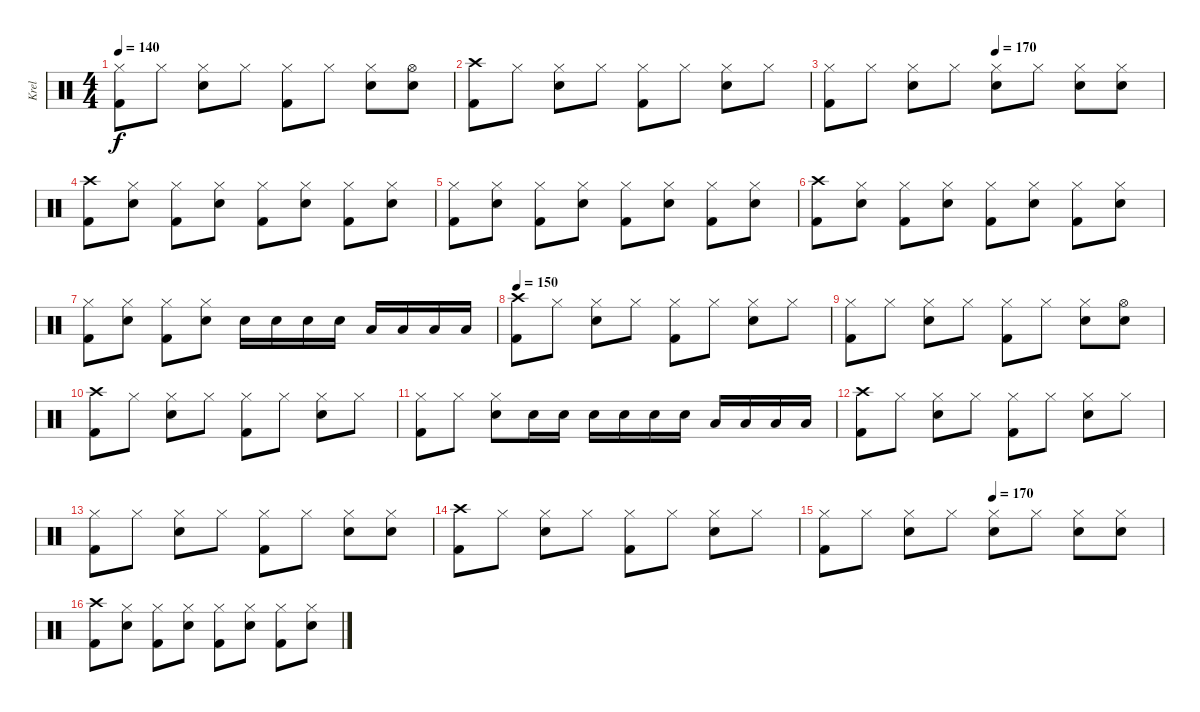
\track ("Krel" "Krel") {instrument percussion}
\staff {score}
\articulation defaults
\ts (4 4)
\tempo 140
\clef neutral
\ks c
("Hi-Hat (closed)" "Kick (hit) 2").8{dy f} "Hi-Hat (closed)".8 ("Hi-Hat (closed)" "Snare (hit) 2").8 "Hi-Hat (closed)".8 ("Hi-Hat (closed)" "Kick (hit) 2").8 "Hi-Hat (closed)".8 ("Hi-Hat (closed)" "Snare (hit) 2").8 ("Hi-Hat (open)" "Snare (hit) 2").8 |
("Crash high (hit)" "Kick (hit) 2").8 "Hi-Hat (closed)".8 ("Hi-Hat (closed)" "Snare (hit) 2").8 "Hi-Hat (closed)".8 ("Hi-Hat (closed)" "Kick (hit) 2").8 "Hi-Hat (closed)".8 ("Hi-Hat (closed)" "Snare (hit) 2").8 "Hi-Hat (closed)".8 |
\tempo (170 0.5)
("Hi-Hat (closed)" "Kick (hit) 2").8 "Hi-Hat (closed)".8 ("Hi-Hat (closed)" "Snare (hit) 2").8 "Hi-Hat (closed)".8 ("Hi-Hat (closed)" "Snare (hit) 2").8 "Hi-Hat (closed)".8 ("Hi-Hat (closed)" "Snare (hit) 2").8 ("Hi-Hat (closed)" "Snare (hit) 2").8 |
("Crash high (hit)" "Kick (hit) 2").8 ("Hi-Hat (closed)" "Snare (hit) 2").8 ("Hi-Hat (closed)" "Kick (hit) 2").8 ("Hi-Hat (closed)" "Snare (hit) 2").8 ("Hi-Hat (closed)" "Kick (hit) 2").8 ("Hi-Hat (closed)" "Snare (hit) 2").8 ("Hi-Hat (closed)" "Kick (hit) 2").8 ("Hi-Hat (closed)" "Snare (hit) 2").8 |
("Hi-Hat (closed)" "Kick (hit) 2").8 ("Hi-Hat (closed)" "Snare (hit) 2").8 ("Hi-Hat (closed)" "Kick (hit) 2").8 ("Hi-Hat (closed)" "Snare (hit) 2").8 ("Hi-Hat (closed)" "Kick (hit) 2").8 ("Hi-Hat (closed)" "Snare (hit) 2").8 ("Hi-Hat (closed)" "Kick (hit) 2").8 ("Hi-Hat (closed)" "Snare (hit) 2").8 |
("Crash high (hit)" "Kick (hit) 2").8 ("Hi-Hat (closed)" "Snare (hit) 2").8 ("Hi-Hat (closed)" "Kick (hit) 2").8 ("Hi-Hat (closed)" "Snare (hit) 2").8 ("Hi-Hat (closed)" "Kick (hit) 2").8 ("Hi-Hat (closed)" "Snare (hit) 2").8 ("Hi-Hat (closed)" "Kick (hit) 2").8 ("Hi-Hat (closed)" "Snare (hit) 2").8 |
("Hi-Hat (closed)" "Kick (hit) 2").8 ("Hi-Hat (closed)" "Snare (hit) 2").8 ("Hi-Hat (closed)" "Kick (hit) 2").8 ("Hi-Hat (closed)" "Snare (hit) 2").8 "Snare (hit) 2".16 "Snare (hit) 2".16 "Snare (hit) 2".16 "Snare (hit) 2".16 "Low Tom (hit)".16 "Low Tom (hit)".16 "Low Tom (hit)".16 "Low Tom (hit)".16 |
\tempo 150
("Crash high (hit)" "Kick (hit) 2").8 "Hi-Hat (closed)".8 ("Hi-Hat (closed)" "Snare (hit) 2").8 "Hi-Hat (closed)".8 ("Hi-Hat (closed)" "Kick (hit) 2").8 "Hi-Hat (closed)".8 ("Hi-Hat (closed)" "Snare (hit) 2").8 "Hi-Hat (closed)".8 |
("Hi-Hat (closed)" "Kick (hit) 2").8 "Hi-Hat (closed)".8 ("Hi-Hat (closed)" "Snare (hit) 2").8 "Hi-Hat (closed)".8 ("Hi-Hat (closed)" "Kick (hit) 2").8 "Hi-Hat (closed)".8 ("Hi-Hat (closed)" "Snare (hit) 2").8 ("Hi-Hat (open)" "Snare (hit) 2").8 |
("Crash high (hit)" "Kick (hit) 2").8 "Hi-Hat (closed)".8 ("Hi-Hat (closed)" "Snare (hit) 2").8 "Hi-Hat (closed)".8 ("Hi-Hat (closed)" "Kick (hit) 2").8 "Hi-Hat (closed)".8 ("Hi-Hat (closed)" "Snare (hit) 2").8 "Hi-Hat (closed)".8 |
("Hi-Hat (closed)" "Kick (hit) 2").8 "Hi-Hat (closed)".8 ("Hi-Hat (closed)" "Snare (hit) 2").8 "Snare (hit) 2".16 "Snare (hit) 2".16 "Snare (hit) 2".16 "Snare (hit) 2".16 "Snare (hit) 2".16 "Snare (hit) 2".16 "Low Tom (hit)".16 "Low Tom (hit)".16 "Low Tom (hit)".16 "Low Tom (hit)".16 |
("Crash high (hit)" "Kick (hit) 2").8 "Hi-Hat (closed)".8 ("Hi-Hat (closed)" "Snare (hit) 2").8 "Hi-Hat (closed)".8 ("Hi-Hat (closed)" "Kick (hit) 2").8 "Hi-Hat (closed)".8 ("Hi-Hat (closed)" "Snare (hit) 2").8 "Hi-Hat (closed)".8 |
("Hi-Hat (closed)" "Kick (hit) 2").8 "Hi-Hat (closed)".8 ("Hi-Hat (closed)" "Snare (hit) 2").8 "Hi-Hat (closed)".8 ("Hi-Hat (closed)" "Kick (hit) 2").8 "Hi-Hat (closed)".8 ("Hi-Hat (closed)" "Snare (hit) 2").8 ("Hi-Hat (closed)" "Snare (hit) 2").8 |
("Crash high (hit)" "Kick (hit) 2").8 "Hi-Hat (closed)".8 ("Hi-Hat (closed)" "Snare (hit) 2").8 "Hi-Hat (closed)".8 ("Hi-Hat (closed)" "Kick (hit) 2").8 "Hi-Hat (closed)".8 ("Hi-Hat (closed)" "Snare (hit) 2").8 "Hi-Hat (closed)".8 |
\tempo (170 0.5)
("Hi-Hat (closed)" "Kick (hit) 2").8 "Hi-Hat (closed)".8 ("Hi-Hat (closed)" "Snare (hit) 2").8 "Hi-Hat (closed)".8 ("Hi-Hat (closed)" "Snare (hit) 2").8 "Hi-Hat (closed)".8 ("Hi-Hat (closed)" "Snare (hit) 2").8 ("Hi-Hat (closed)" "Snare (hit) 2").8 |
("Crash high (hit)" "Kick (hit) 2").8 ("Hi-Hat (closed)" "Snare (hit) 2").8 ("Hi-Hat (closed)" "Kick (hit) 2").8 ("Hi-Hat (closed)" "Snare (hit) 2").8 ("Hi-Hat (closed)" "Kick (hit) 2").8 ("Hi-Hat (closed)" "Snare (hit) 2").8 ("Hi-Hat (closed)" "Kick (hit) 2").8 ("Hi-Hat (closed)" "Snare (hit) 2").8
